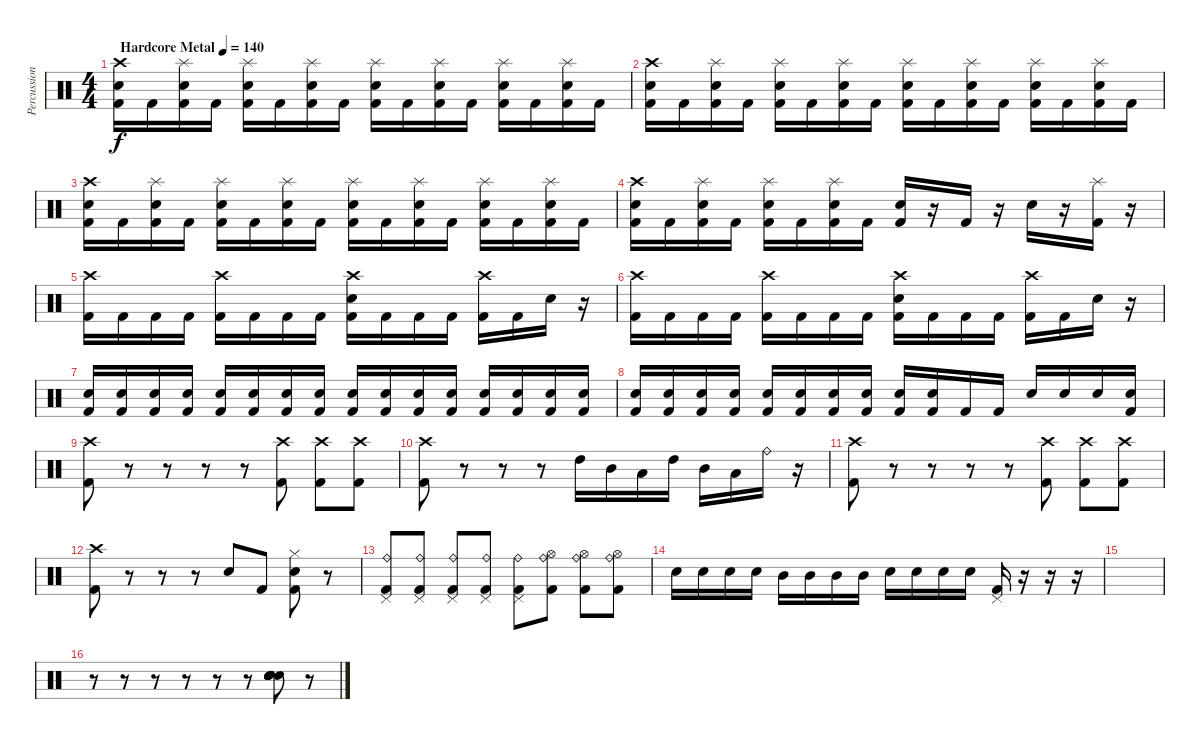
\track ("Percussion" "Percussion") {instrument percussion}
\staff {score}
\articulation defaults
\ts (4 4)
\tempo (140 "Hardcore Metal")
\clef neutral
\ks c
("Crash high (hit)" "Electric Snare (hit)" "Kick (hit) 2").16{dy f} "Kick (hit) 2".16 ("Splash (hit)" "Electric Snare (hit)" "Kick (hit) 2").16 "Kick (hit) 2".16 ("Splash (hit)" "Electric Snare (hit)" "Kick (hit) 2").16 "Kick (hit) 2".16 ("Splash (hit)" "Electric Snare (hit)" "Kick (hit) 2").16 "Kick (hit) 2".16 ("Splash (hit)" "Electric Snare (hit)" "Kick (hit) 2").16 "Kick (hit) 2".16 ("Splash (hit)" "Electric Snare (hit)" "Kick (hit) 2").16 "Kick (hit) 2".16 ("Splash (hit)" "Electric Snare (hit)" "Kick (hit) 2").16 "Kick (hit) 2".16 ("Splash (hit)" "Electric Snare (hit)" "Kick (hit) 2").16 "Kick (hit) 2".16 |
("Crash high (hit)" "Electric Snare (hit)" "Kick (hit) 2").16 "Kick (hit) 2".16 ("Splash (hit)" "Electric Snare (hit)" "Kick (hit) 2").16 "Kick (hit) 2".16 ("Splash (hit)" "Electric Snare (hit)" "Kick (hit) 2").16 "Kick (hit) 2".16 ("Splash (hit)" "Electric Snare (hit)" "Kick (hit) 2").16 "Kick (hit) 2".16 ("Splash (hit)" "Electric Snare (hit)" "Kick (hit) 2").16 "Kick (hit) 2".16 ("Splash (hit)" "Electric Snare (hit)" "Kick (hit) 2").16 "Kick (hit) 2".16 ("Splash (hit)" "Electric Snare (hit)" "Kick (hit) 2").16 "Kick (hit) 2".16 ("Splash (hit)" "Electric Snare (hit)" "Kick (hit) 2").16 "Kick (hit) 2".16 |
("Crash high (hit)" "Electric Snare (hit)" "Kick (hit) 2").16 "Kick (hit) 2".16 ("Splash (hit)" "Electric Snare (hit)" "Kick (hit) 2").16 "Kick (hit) 2".16 ("Splash (hit)" "Electric Snare (hit)" "Kick (hit) 2").16 "Kick (hit) 2".16 ("Splash (hit)" "Electric Snare (hit)" "Kick (hit) 2").16 "Kick (hit) 2".16 ("Splash (hit)" "Electric Snare (hit)" "Kick (hit) 2").16 "Kick (hit) 2".16 ("Splash (hit)" "Electric Snare (hit)" "Kick (hit) 2").16 "Kick (hit) 2".16 ("Splash (hit)" "Electric Snare (hit)" "Kick (hit) 2").16 "Kick (hit) 2".16 ("Splash (hit)" "Electric Snare (hit)" "Kick (hit) 2").16 "Kick (hit) 2".16 |
("Crash high (hit)" "Electric Snare (hit)" "Kick (hit) 2").16 "Kick (hit) 2".16 ("Splash (hit)" "Electric Snare (hit)" "Kick (hit) 2").16 "Kick (hit) 2".16 ("Splash (hit)" "Electric Snare (hit)" "Kick (hit) 2").16 "Kick (hit) 2".16 ("Splash (hit)" "Electric Snare (hit)" "Kick (hit) 2").16 "Kick (hit) 2".16 ("Electric Snare (hit)" "Kick (hit) 2").16 r.16 "Kick (hit) 2".16 r.16 "Electric Snare (hit)".16 r.16 ("Splash (hit)" "Kick (hit) 2").16 r.16 |
("Crash high (hit)" "Kick (hit) 2").16 "Kick (hit) 2".16 "Kick (hit) 2".16 "Kick (hit) 2".16 ("Crash high (hit)" "Kick (hit) 2").16 "Kick (hit) 2".16 "Kick (hit) 2".16 "Kick (hit) 2".16 ("Crash high (hit)" "Electric Snare (hit)" "Kick (hit) 2").16 "Kick (hit) 2".16 "Kick (hit) 2".16 "Kick (hit) 2".16 ("Crash high (hit)" "Kick (hit) 2").16 "Kick (hit) 2".16 "Electric Snare (hit)".16 r.16 |
("Crash high (hit)" "Kick (hit) 2").16 "Kick (hit) 2".16 "Kick (hit) 2".16 "Kick (hit) 2".16 ("Crash high (hit)" "Kick (hit) 2").16 "Kick (hit) 2".16 "Kick (hit) 2".16 "Kick (hit) 2".16 ("Crash high (hit)" "Electric Snare (hit)" "Kick (hit) 2").16 "Kick (hit) 2".16 "Kick (hit) 2".16 "Kick (hit) 2".16 ("Crash high (hit)" "Kick (hit) 2").16 "Kick (hit) 2".16 "Electric Snare (hit)".16 r.16 |
("Electric Snare (hit)" "Kick (hit) 2").16 ("Electric Snare (hit)" "Kick (hit) 2").16 ("Electric Snare (hit)" "Kick (hit) 2").16 ("Electric Snare (hit)" "Kick (hit) 2").16 ("Electric Snare (hit)" "Kick (hit) 2").16 ("Electric Snare (hit)" "Kick (hit) 2").16 ("Electric Snare (hit)" "Kick (hit) 2").16 ("Electric Snare (hit)" "Kick (hit) 2").16 ("Electric Snare (hit)" "Kick (hit) 2").16 ("Electric Snare (hit)" "Kick (hit) 2").16 ("Electric Snare (hit)" "Kick (hit) 2").16 ("Electric Snare (hit)" "Kick (hit) 2").16 ("Electric Snare (hit)" "Kick (hit) 2").16 ("Electric Snare (hit)" "Kick (hit) 2").16 ("Electric Snare (hit)" "Kick (hit) 2").16 ("Electric Snare (hit)" "Kick (hit) 2").16 |
("Electric Snare (hit)" "Kick (hit) 2").16 ("Electric Snare (hit)" "Kick (hit) 2").16 ("Electric Snare (hit)" "Kick (hit) 2").16 ("Electric Snare (hit)" "Kick (hit) 2").16 ("Electric Snare (hit)" "Kick (hit) 2").16 ("Electric Snare (hit)" "Kick (hit) 2").16 ("Electric Snare (hit)" "Kick (hit) 2").16 ("Electric Snare (hit)" "Kick (hit) 2").16 ("Electric Snare (hit)" "Kick (hit) 2").16 ("Electric Snare (hit)" "Kick (hit) 2").16 "Kick (hit) 2".16 "Kick (hit) 2".16 "Electric Snare (hit)".16 "Electric Snare (hit)".16 "Electric Snare (hit)".16 ("Electric Snare (hit)" "Kick (hit) 2").16 |
("Crash high (hit)" "Kick (hit) 2").8 r.8 r.8 r.8 r.8 ("Crash high (hit)" "Kick (hit) 2").8 ("Crash high (hit)" "Kick (hit) 2").8 ("Crash high (hit)" "Kick (hit) 2").8 |
("Crash high (hit)" "Kick (hit) 2").8 r.8 r.8 r.8 "High Tom (hit)".16 "Mid Tom (hit)".16 "Low Tom (hit)".16 "High Tom (hit)".16 "Mid Tom (hit)".16 "Low Tom (hit)".16 "Ride (bell)".16 r.16 |
("Crash high (hit)" "Kick (hit) 2").8 r.8 r.8 r.8 r.8 ("Crash high (hit)" "Kick (hit) 2").8 ("Crash high (hit)" "Kick (hit) 2").8 ("Crash high (hit)" "Kick (hit) 2").8 |
("Crash high (hit)" "Kick (hit) 2").8 r.8 r.8 r.8 "Electric Snare (hit)".8 "Kick (hit) 2".8 ("Hi-Hat (closed)" "Electric Snare (hit)" "Kick (hit) 2").8 r.8 |
("Pedal Hi-Hat (hit)" "Ride (bell)" "Kick (hit) 2").8 ("Pedal Hi-Hat (hit)" "Ride (bell)" "Kick (hit) 2").8 ("Pedal Hi-Hat (hit)" "Ride (bell)" "Kick (hit) 2").8 ("Pedal Hi-Hat (hit)" "Ride (bell)" "Kick (hit) 2").8 ("Pedal Hi-Hat (hit)" "Ride (bell)" "Kick (hit) 2").8 ("Hi-Hat (open)" "Ride (bell)" "Kick (hit) 2").8 ("Hi-Hat (open)" "Ride (bell)" "Kick (hit) 2").8 ("Hi-Hat (open)" "Ride (bell)" "Kick (hit) 2").8 |
"Electric Snare (hit)".16 "Electric Snare (hit)".16 "Electric Snare (hit)".16 "Electric Snare (hit)".16 "Mid Tom (hit)".16 "Mid Tom (hit)".16 "Mid Tom (hit)".16 "Mid Tom (hit)".16 "Electric Snare (hit)".16 "Electric Snare (hit)".16 "Electric Snare (hit)".16 "Electric Snare (hit)".16 ("Pedal Hi-Hat (hit)" "Kick (hit) 2").16 r.16 r.16 r.16 |
|
r.8 r.8 r.8 r.8 r.8 r.8 ("Electric Snare (hit)" "Electric Snare (hit)" "Electric Snare (hit)" "Electric Snare (hit)" "Electric Snare (hit)" "Electric Snare (hit)").8 r.8
